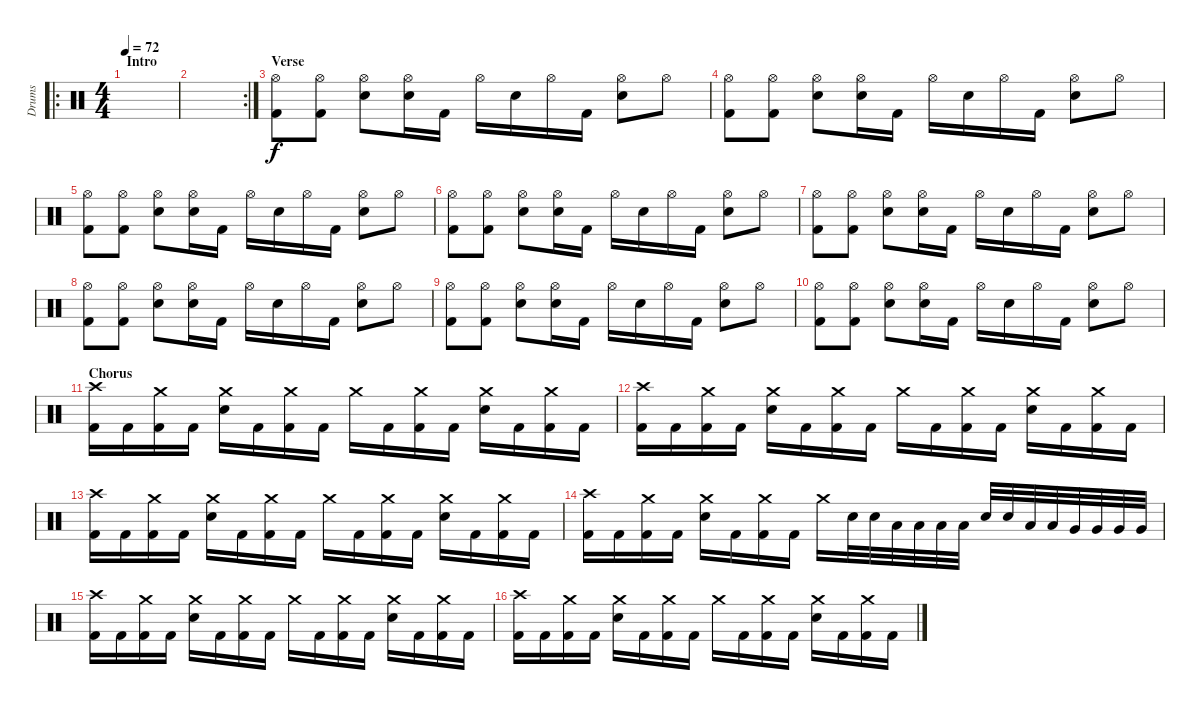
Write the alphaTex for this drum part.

\track ("Drums" "Drums") {instrument percussion}
\staff {score}
\articulation defaults
\ro
\ts (4 4)
\section ("" "Intro")
\tempo 72
\clef neutral
\ks c
|
\rc 2
|
\section ("" "Verse")
("Hi-Hat (open)" "Kick (hit) 2").8 ("Hi-Hat (open)" "Kick (hit) 2").8 ("Hi-Hat (open)" "Snare (hit) 2").8 ("Hi-Hat (open)" "Snare (hit) 2").16 "Kick (hit) 2".16 "Hi-Hat (open)".16 "Snare (hit) 2".16 "Hi-Hat (open)".16 "Kick (hit) 2".16 ("Hi-Hat (open)" "Snare (hit) 2").8 "Hi-Hat (open)".8 |
("Hi-Hat (open)" "Kick (hit) 2").8 ("Hi-Hat (open)" "Kick (hit) 2").8 ("Hi-Hat (open)" "Snare (hit) 2").8 ("Hi-Hat (open)" "Snare (hit) 2").16 "Kick (hit) 2".16 "Hi-Hat (open)".16 "Snare (hit) 2".16 "Hi-Hat (open)".16 "Kick (hit) 2".16 ("Hi-Hat (open)" "Snare (hit) 2").8 "Hi-Hat (open)".8 |
("Hi-Hat (open)" "Kick (hit) 2").8 ("Hi-Hat (open)" "Kick (hit) 2").8 ("Hi-Hat (open)" "Snare (hit) 2").8 ("Hi-Hat (open)" "Snare (hit) 2").16 "Kick (hit) 2".16 "Hi-Hat (open)".16 "Snare (hit) 2".16 "Hi-Hat (open)".16 "Kick (hit) 2".16 ("Hi-Hat (open)" "Snare (hit) 2").8 "Hi-Hat (open)".8 |
("Hi-Hat (open)" "Kick (hit) 2").8 ("Hi-Hat (open)" "Kick (hit) 2").8 ("Hi-Hat (open)" "Snare (hit) 2").8 ("Hi-Hat (open)" "Snare (hit) 2").16 "Kick (hit) 2".16 "Hi-Hat (open)".16 "Snare (hit) 2".16 "Hi-Hat (open)".16 "Kick (hit) 2".16 ("Hi-Hat (open)" "Snare (hit) 2").8 "Hi-Hat (open)".8 |
("Hi-Hat (open)" "Kick (hit) 2").8 ("Hi-Hat (open)" "Kick (hit) 2").8 ("Hi-Hat (open)" "Snare (hit) 2").8 ("Hi-Hat (open)" "Snare (hit) 2").16 "Kick (hit) 2".16 "Hi-Hat (open)".16 "Snare (hit) 2".16 "Hi-Hat (open)".16 "Kick (hit) 2".16 ("Hi-Hat (open)" "Snare (hit) 2").8 "Hi-Hat (open)".8 |
("Hi-Hat (open)" "Kick (hit) 2").8 ("Hi-Hat (open)" "Kick (hit) 2").8 ("Hi-Hat (open)" "Snare (hit) 2").8 ("Hi-Hat (open)" "Snare (hit) 2").16 "Kick (hit) 2".16 "Hi-Hat (open)".16 "Snare (hit) 2".16 "Hi-Hat (open)".16 "Kick (hit) 2".16 ("Hi-Hat (open)" "Snare (hit) 2").8 "Hi-Hat (open)".8 |
("Hi-Hat (open)" "Kick (hit) 2").8 ("Hi-Hat (open)" "Kick (hit) 2").8 ("Hi-Hat (open)" "Snare (hit) 2").8 ("Hi-Hat (open)" "Snare (hit) 2").16 "Kick (hit) 2".16 "Hi-Hat (open)".16 "Snare (hit) 2".16 "Hi-Hat (open)".16 "Kick (hit) 2".16 ("Hi-Hat (open)" "Snare (hit) 2").8 "Hi-Hat (open)".8 |
("Hi-Hat (open)" "Kick (hit) 2").8 ("Hi-Hat (open)" "Kick (hit) 2").8 ("Hi-Hat (open)" "Snare (hit) 2").8 ("Hi-Hat (open)" "Snare (hit) 2").16 "Kick (hit) 2".16 "Hi-Hat (open)".16 "Snare (hit) 2".16 "Hi-Hat (open)".16 "Kick (hit) 2".16 ("Hi-Hat (open)" "Snare (hit) 2").8 "Hi-Hat (open)".8 |
\section ("" "Chorus")
("Crash high (hit)" "Kick (hit) 2").16 "Kick (hit) 2".16 ("Kick (hit) 2" "Crash medium (hit)").16 "Kick (hit) 2".16 ("Snare (hit) 2" "Crash medium (hit)").16 "Kick (hit) 2".16 ("Kick (hit) 2" "Crash medium (hit)").16 "Kick (hit) 2".16 "Crash medium (hit)".16 "Kick (hit) 2".16 ("Kick (hit) 2" "Crash medium (hit)").16 "Kick (hit) 2".16 ("Snare (hit) 2" "Crash medium (hit)").16 "Kick (hit) 2".16 ("Kick (hit) 2" "Crash medium (hit)").16 "Kick (hit) 2".16 |
("Crash high (hit)" "Kick (hit) 2").16 "Kick (hit) 2".16 ("Kick (hit) 2" "Crash medium (hit)").16 "Kick (hit) 2".16 ("Snare (hit) 2" "Crash medium (hit)").16 "Kick (hit) 2".16 ("Kick (hit) 2" "Crash medium (hit)").16 "Kick (hit) 2".16 "Crash medium (hit)".16 "Kick (hit) 2".16 ("Kick (hit) 2" "Crash medium (hit)").16 "Kick (hit) 2".16 ("Snare (hit) 2" "Crash medium (hit)").16 "Kick (hit) 2".16 ("Kick (hit) 2" "Crash medium (hit)").16 "Kick (hit) 2".16 |
("Crash high (hit)" "Kick (hit) 2").16 "Kick (hit) 2".16 ("Kick (hit) 2" "Crash medium (hit)").16 "Kick (hit) 2".16 ("Snare (hit) 2" "Crash medium (hit)").16 "Kick (hit) 2".16 ("Kick (hit) 2" "Crash medium (hit)").16 "Kick (hit) 2".16 "Crash medium (hit)".16 "Kick (hit) 2".16 ("Kick (hit) 2" "Crash medium (hit)").16 "Kick (hit) 2".16 ("Snare (hit) 2" "Crash medium (hit)").16 "Kick (hit) 2".16 ("Kick (hit) 2" "Crash medium (hit)").16 "Kick (hit) 2".16 |
("Crash high (hit)" "Kick (hit) 2").16 "Kick (hit) 2".16 ("Kick (hit) 2" "Crash medium (hit)").16 "Kick (hit) 2".16 ("Snare (hit) 2" "Crash medium (hit)").16 "Kick (hit) 2".16 ("Kick (hit) 2" "Crash medium (hit)").16 "Kick (hit) 2".16 "Crash medium (hit)".16 "Snare (hit) 2".32 "Snare (hit) 2".32 "Low Tom (hit)".32 "Low Tom (hit)".32 "Low Tom (hit)".32 "Low Tom (hit)".32 "Snare (hit) 2".32 "Snare (hit) 2".32 "Low Tom (hit)".32 "Low Tom (hit)".32 "Very Low Tom (hit)".32 "Very Low Tom (hit)".32 "Very Low Tom (hit)".32 "Very Low Tom (hit)".32 |
("Crash high (hit)" "Kick (hit) 2").16 "Kick (hit) 2".16 ("Kick (hit) 2" "Crash medium (hit)").16 "Kick (hit) 2".16 ("Snare (hit) 2" "Crash medium (hit)").16 "Kick (hit) 2".16 ("Kick (hit) 2" "Crash medium (hit)").16 "Kick (hit) 2".16 "Crash medium (hit)".16 "Kick (hit) 2".16 ("Kick (hit) 2" "Crash medium (hit)").16 "Kick (hit) 2".16 ("Snare (hit) 2" "Crash medium (hit)").16 "Kick (hit) 2".16 ("Kick (hit) 2" "Crash medium (hit)").16 "Kick (hit) 2".16 |
("Crash high (hit)" "Kick (hit) 2").16 "Kick (hit) 2".16 ("Kick (hit) 2" "Crash medium (hit)").16 "Kick (hit) 2".16 ("Snare (hit) 2" "Crash medium (hit)").16 "Kick (hit) 2".16 ("Kick (hit) 2" "Crash medium (hit)").16 "Kick (hit) 2".16 "Crash medium (hit)".16 "Kick (hit) 2".16 ("Kick (hit) 2" "Crash medium (hit)").16 "Kick (hit) 2".16 ("Snare (hit) 2" "Crash medium (hit)").16 "Kick (hit) 2".16 ("Kick (hit) 2" "Crash medium (hit)").16 "Kick (hit) 2".16
